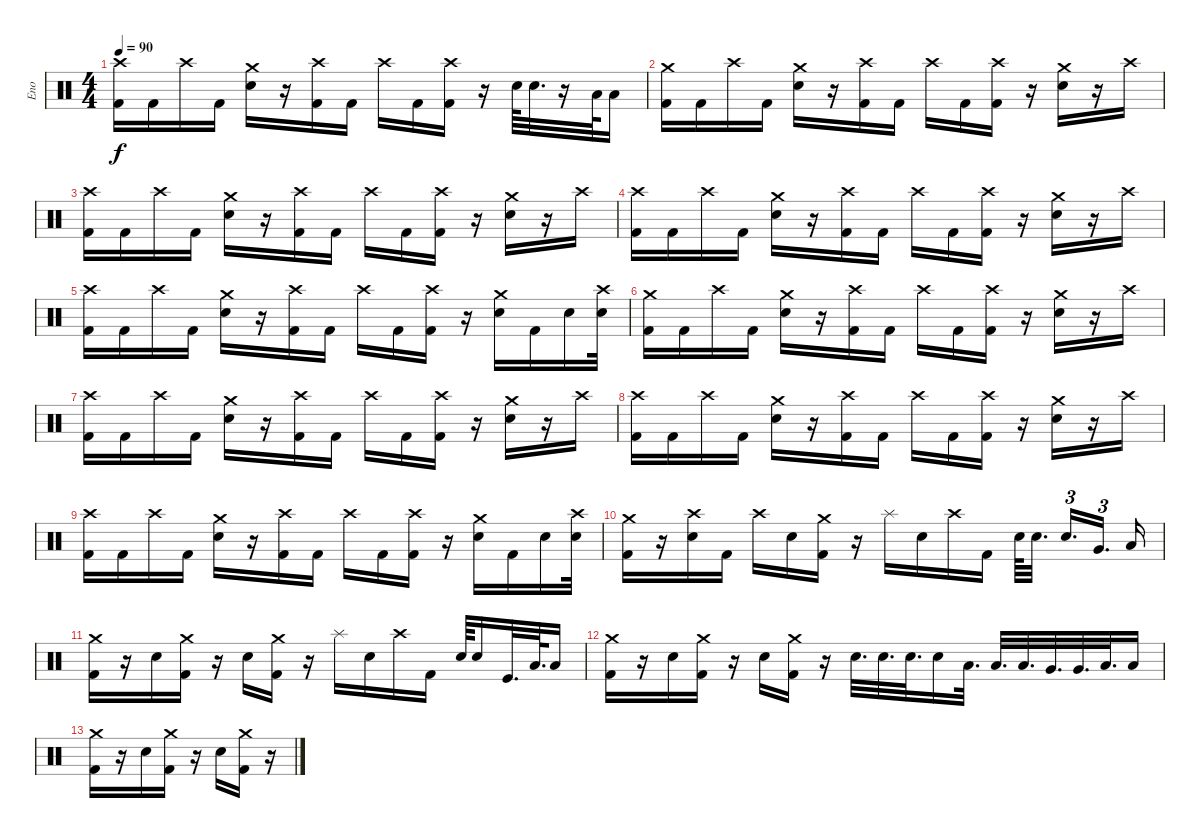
\track ("Eno" "Eno") {instrument percussion}
\staff {score}
\articulation defaults
\ts (4 4)
\tempo 90
\clef neutral
\ks c
("Crash high (hit)" "Kick (hit) 2").16{dy f} "Kick (hit) 2".16 "Crash high (hit)".16 "Kick (hit) 2".16 ("Crash medium (hit)" "Snare (hit) 2").16 r.16 ("Crash high (hit)" "Kick (hit) 2").16 "Kick (hit) 2".16 "Crash high (hit)".16 "Kick (hit) 2".16 ("Crash high (hit)" "Kick (hit) 2").16 r.16 "Snare (hit) 2".64 "Snare (hit) 2".32{d} r.16 "Low Tom (hit)".64 "Low Floor Tom (hit)".16 |
("Crash medium (hit)" "Kick (hit) 2").16 "Kick (hit) 2".16 "Crash high (hit)".16 "Kick (hit) 2".16 ("Crash medium (hit)" "Snare (hit) 2").16 r.16 ("Crash high (hit)" "Kick (hit) 2").16 "Kick (hit) 2".16 "Crash high (hit)".16 "Kick (hit) 2".16 ("Crash high (hit)" "Kick (hit) 2").16 r.16 ("Crash medium (hit)" "Snare (hit) 2").16 r.16 "Crash high (hit)".16 |
("Crash high (hit)" "Kick (hit) 2").16 "Kick (hit) 2".16 "Crash high (hit)".16 "Kick (hit) 2".16 ("Crash medium (hit)" "Snare (hit) 2").16 r.16 ("Crash high (hit)" "Kick (hit) 2").16 "Kick (hit) 2".16 "Crash high (hit)".16 "Kick (hit) 2".16 ("Crash high (hit)" "Kick (hit) 2").16 r.16 ("Crash medium (hit)" "Snare (hit) 2").16 r.16 "Crash high (hit)".16 |
("Crash high (hit)" "Kick (hit) 2").16 "Kick (hit) 2".16 "Crash high (hit)".16 "Kick (hit) 2".16 ("Crash medium (hit)" "Snare (hit) 2").16 r.16 ("Crash high (hit)" "Kick (hit) 2").16 "Kick (hit) 2".16 "Crash high (hit)".16 "Kick (hit) 2".16 ("Crash high (hit)" "Kick (hit) 2").16 r.16 ("Crash medium (hit)" "Snare (hit) 2").16 r.16 "Crash high (hit)".16 |
("Crash high (hit)" "Kick (hit) 2").16 "Kick (hit) 2".16 "Crash high (hit)".16 "Kick (hit) 2".16 ("Crash medium (hit)" "Snare (hit) 2").16 r.16 ("Crash high (hit)" "Kick (hit) 2").16 "Kick (hit) 2".16 "Crash high (hit)".16 "Kick (hit) 2".16 ("Crash high (hit)" "Kick (hit) 2").16 r.16 ("Crash medium (hit)" "Snare (hit) 2").16 "Kick (hit) 2".16 "Snare (hit) 2".16 ("Crash high (hit)" "Snare (hit) 2").32 |
("Crash medium (hit)" "Kick (hit) 2").16 "Kick (hit) 2".16 "Crash high (hit)".16 "Kick (hit) 2".16 ("Crash medium (hit)" "Snare (hit) 2").16 r.16 ("Crash high (hit)" "Kick (hit) 2").16 "Kick (hit) 2".16 "Crash high (hit)".16 "Kick (hit) 2".16 ("Crash high (hit)" "Kick (hit) 2").16 r.16 ("Crash medium (hit)" "Snare (hit) 2").16 r.16 "Crash high (hit)".16 |
("Crash high (hit)" "Kick (hit) 2").16 "Kick (hit) 2".16 "Crash high (hit)".16 "Kick (hit) 2".16 ("Crash medium (hit)" "Snare (hit) 2").16 r.16 ("Crash high (hit)" "Kick (hit) 2").16 "Kick (hit) 2".16 "Crash high (hit)".16 "Kick (hit) 2".16 ("Crash high (hit)" "Kick (hit) 2").16 r.16 ("Crash medium (hit)" "Snare (hit) 2").16 r.16 "Crash high (hit)".16 |
("Crash high (hit)" "Kick (hit) 2").16 "Kick (hit) 2".16 "Crash high (hit)".16 "Kick (hit) 2".16 ("Crash medium (hit)" "Snare (hit) 2").16 r.16 ("Crash high (hit)" "Kick (hit) 2").16 "Kick (hit) 2".16 "Crash high (hit)".16 "Kick (hit) 2".16 ("Crash high (hit)" "Kick (hit) 2").16 r.16 ("Crash medium (hit)" "Snare (hit) 2").16 r.16 "Crash high (hit)".16 |
("Crash high (hit)" "Kick (hit) 2").16 "Kick (hit) 2".16 "Crash high (hit)".16 "Kick (hit) 2".16 ("Crash medium (hit)" "Snare (hit) 2").16 r.16 ("Crash high (hit)" "Kick (hit) 2").16 "Kick (hit) 2".16 "Crash high (hit)".16 "Kick (hit) 2".16 ("Crash high (hit)" "Kick (hit) 2").16 r.16 ("Crash medium (hit)" "Snare (hit) 2").16 "Kick (hit) 2".16 "Snare (hit) 2".16 ("Crash high (hit)" "Snare (hit) 2").32 |
("Crash medium (hit)" "Kick (hit) 2").16 r.16 ("Crash high (hit)" "Snare (hit) 2").16 "Kick (hit) 2".16 "Crash high (hit)".16 "Snare (hit) 2".16 ("Crash medium (hit)" "Kick (hit) 2").16 r.16 "Splash (hit)".16 "Snare (hit) 2".16 "Crash high (hit)".16 "Kick (hit) 2".16 "Snare (hit) 2".64 "Snare (hit) 2".32{d beam splitsecondary} "Electric Snare (hit)".16{d tu (3 2)} "Very Low Tom (hit)".16{d tu (3 2) beam splitsecondary} "Low Floor Tom (hit)".16 |
("Crash medium (hit)" "Kick (hit) 2").16 r.16 "Snare (hit) 2".16 ("Crash medium (hit)" "Kick (hit) 2").16 r.16 "Snare (hit) 2".16 ("Crash medium (hit)" "Kick (hit) 2").16 r.16 "Splash (hit)".16 "Snare (hit) 2".16 "Crash high (hit)".16 "Kick (hit) 2".16 "Snare (hit) 2".64 "Snare (hit) 2".16 "Kick (hit)".32{d} "Low Tom (hit)".64{d} "Low Floor Tom (hit)".16 |
("Crash medium (hit)" "Kick (hit) 2").16 r.16 "Snare (hit) 2".16 ("Crash medium (hit)" "Kick (hit) 2").16 r.16 "Snare (hit) 2".16 ("Crash medium (hit)" "Kick (hit) 2").16 r.16 "Electric Snare (hit)".32{d} "Electric Snare (hit)".32{d} "Electric Snare (hit)".32{d} "Electric Snare (hit)".16 "Low Tom (hit)".32{d} "Low Tom (hit)".32{d} "Low Tom (hit)".32{d} "Very Low Tom (hit)".32{d} "Very Low Tom (hit)".32{d} "Low Floor Tom (hit)".32{d} "Low Floor Tom (hit)".16 |
("Crash medium (hit)" "Kick (hit) 2").16 r.16 "Snare (hit) 2".16 ("Crash medium (hit)" "Kick (hit) 2").16 r.16 "Snare (hit) 2".16 ("Crash medium (hit)" "Kick (hit) 2").16 r.16
